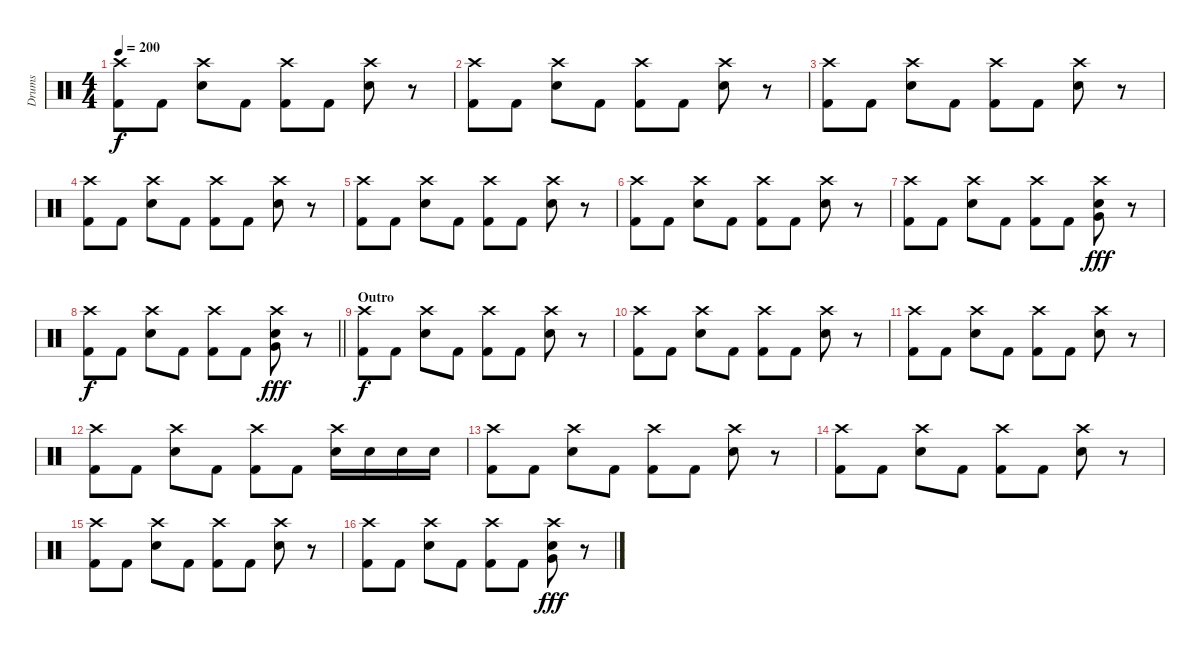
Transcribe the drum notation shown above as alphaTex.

\track ("Drums" "Drums") {instrument percussion}
\staff {score}
\articulation defaults
\ts (4 4)
\tempo 200
\clef neutral
\ks c
("Crash high (hit)" "Kick (hit) 2").8{dy f} "Kick (hit) 2".8 ("Crash high (hit)" "Electric Snare (hit)").8 "Kick (hit) 2".8 ("Crash high (hit)" "Kick (hit) 2").8 "Kick (hit) 2".8 ("Crash high (hit)" "Electric Snare (hit)").8 r.8 |
("Crash high (hit)" "Kick (hit) 2").8 "Kick (hit) 2".8 ("Crash high (hit)" "Electric Snare (hit)").8 "Kick (hit) 2".8 ("Crash high (hit)" "Kick (hit) 2").8 "Kick (hit) 2".8 ("Crash high (hit)" "Electric Snare (hit)").8 r.8 |
("Crash high (hit)" "Kick (hit) 2").8 "Kick (hit) 2".8 ("Crash high (hit)" "Electric Snare (hit)").8 "Kick (hit) 2".8 ("Crash high (hit)" "Kick (hit) 2").8 "Kick (hit) 2".8 ("Crash high (hit)" "Electric Snare (hit)").8 r.8 |
("Crash high (hit)" "Kick (hit) 2").8 "Kick (hit) 2".8 ("Crash high (hit)" "Electric Snare (hit)").8 "Kick (hit) 2".8 ("Crash high (hit)" "Kick (hit) 2").8 "Kick (hit) 2".8 ("Crash high (hit)" "Electric Snare (hit)").8 r.8 |
("Crash high (hit)" "Kick (hit) 2").8 "Kick (hit) 2".8 ("Crash high (hit)" "Electric Snare (hit)").8 "Kick (hit) 2".8 ("Crash high (hit)" "Kick (hit) 2").8 "Kick (hit) 2".8 ("Crash high (hit)" "Electric Snare (hit)").8 r.8 |
("Crash high (hit)" "Kick (hit) 2").8 "Kick (hit) 2".8 ("Crash high (hit)" "Electric Snare (hit)").8 "Kick (hit) 2".8 ("Crash high (hit)" "Kick (hit) 2").8 "Kick (hit) 2".8 ("Crash high (hit)" "Electric Snare (hit)").8 r.8 |
("Crash high (hit)" "Kick (hit) 2").8 "Kick (hit) 2".8 ("Crash high (hit)" "Electric Snare (hit)").8 "Kick (hit) 2".8 ("Crash high (hit)" "Kick (hit) 2").8 "Kick (hit) 2".8 ("Crash high (hit)" "Very Low Tom (hit)" "Electric Snare (hit)").8{dy fff} r.8 |
\barLineRight lightlight
("Crash high (hit)" "Kick (hit) 2").8{dy f} "Kick (hit) 2".8 ("Crash high (hit)" "Electric Snare (hit)").8 "Kick (hit) 2".8 ("Crash high (hit)" "Kick (hit) 2").8 "Kick (hit) 2".8 ("Crash high (hit)" "Very Low Tom (hit)" "Electric Snare (hit)").8{dy fff} r.8 |
\section ("" "Outro")
("Crash high (hit)" "Kick (hit) 2").8{dy f} "Kick (hit) 2".8 ("Crash high (hit)" "Electric Snare (hit)").8 "Kick (hit) 2".8 ("Crash high (hit)" "Kick (hit) 2").8 "Kick (hit) 2".8 ("Crash high (hit)" "Electric Snare (hit)").8 r.8 |
("Crash high (hit)" "Kick (hit) 2").8 "Kick (hit) 2".8 ("Crash high (hit)" "Electric Snare (hit)").8 "Kick (hit) 2".8 ("Crash high (hit)" "Kick (hit) 2").8 "Kick (hit) 2".8 ("Crash high (hit)" "Electric Snare (hit)").8 r.8 |
("Crash high (hit)" "Kick (hit) 2").8 "Kick (hit) 2".8 ("Crash high (hit)" "Electric Snare (hit)").8 "Kick (hit) 2".8 ("Crash high (hit)" "Kick (hit) 2").8 "Kick (hit) 2".8 ("Crash high (hit)" "Electric Snare (hit)").8 r.8 |
("Crash high (hit)" "Kick (hit) 2").8 "Kick (hit) 2".8 ("Crash high (hit)" "Electric Snare (hit)").8 "Kick (hit) 2".8 ("Crash high (hit)" "Kick (hit) 2").8 "Kick (hit) 2".8 ("Crash high (hit)" "Electric Snare (hit)").16 "Electric Snare (hit)".16 "Electric Snare (hit)".16 "Electric Snare (hit)".16 |
("Crash high (hit)" "Kick (hit) 2").8 "Kick (hit) 2".8 ("Crash high (hit)" "Electric Snare (hit)").8 "Kick (hit) 2".8 ("Crash high (hit)" "Kick (hit) 2").8 "Kick (hit) 2".8 ("Crash high (hit)" "Electric Snare (hit)").8 r.8 |
("Crash high (hit)" "Kick (hit) 2").8 "Kick (hit) 2".8 ("Crash high (hit)" "Electric Snare (hit)").8 "Kick (hit) 2".8 ("Crash high (hit)" "Kick (hit) 2").8 "Kick (hit) 2".8 ("Crash high (hit)" "Electric Snare (hit)").8 r.8 |
("Crash high (hit)" "Kick (hit) 2").8 "Kick (hit) 2".8 ("Crash high (hit)" "Electric Snare (hit)").8 "Kick (hit) 2".8 ("Crash high (hit)" "Kick (hit) 2").8 "Kick (hit) 2".8 ("Crash high (hit)" "Electric Snare (hit)").8 r.8 |
("Crash high (hit)" "Kick (hit) 2").8 "Kick (hit) 2".8 ("Crash high (hit)" "Electric Snare (hit)").8 "Kick (hit) 2".8 ("Crash high (hit)" "Kick (hit) 2").8 "Kick (hit) 2".8 ("Crash high (hit)" "Very Low Tom (hit)" "Electric Snare (hit)").8{dy fff} r.8
